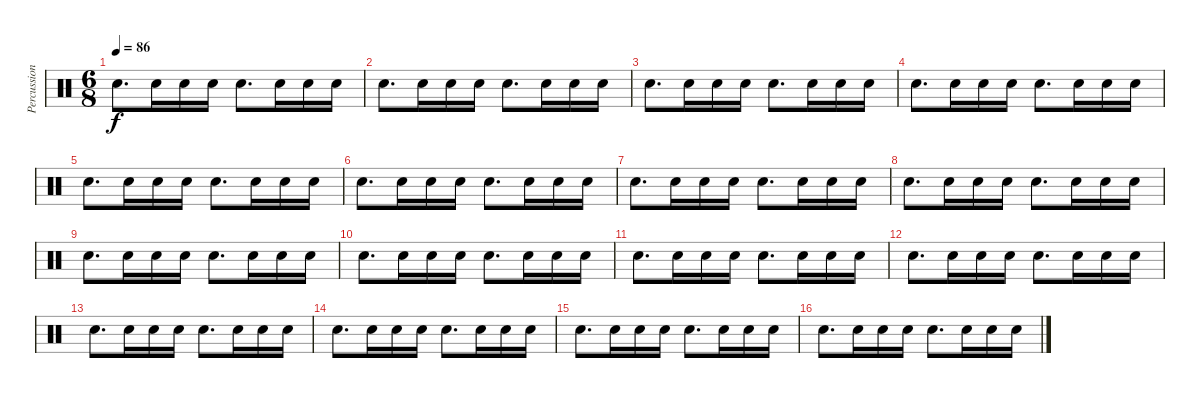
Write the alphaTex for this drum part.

\track ("Percussion" "Percussion") {instrument percussion}
\staff {score}
\articulation defaults
\ts (6 8)
\tempo 86
\clef neutral
\ks c "Hand Clap (hit)".8{d dy f} "Hand Clap (hit)".16 "Hand Clap (hit)".16 "Hand Clap (hit)".16 "Hand Clap (hit)".8{d} "Hand Clap (hit)".16 "Hand Clap (hit)".16 "Hand Clap (hit)".16
|
"Hand Clap (hit)".8{d} "Hand Clap (hit)".16 "Hand Clap (hit)".16 "Hand Clap (hit)".16 "Hand Clap (hit)".8{d} "Hand Clap (hit)".16 "Hand Clap (hit)".16 "Hand Clap (hit)".16 |
"Hand Clap (hit)".8{d} "Hand Clap (hit)".16 "Hand Clap (hit)".16 "Hand Clap (hit)".16 "Hand Clap (hit)".8{d} "Hand Clap (hit)".16 "Hand Clap (hit)".16 "Hand Clap (hit)".16 |
"Hand Clap (hit)".8{d} "Hand Clap (hit)".16 "Hand Clap (hit)".16 "Hand Clap (hit)".16 "Hand Clap (hit)".8{d} "Hand Clap (hit)".16 "Hand Clap (hit)".16 "Hand Clap (hit)".16 |
"Hand Clap (hit)".8{d} "Hand Clap (hit)".16 "Hand Clap (hit)".16 "Hand Clap (hit)".16 "Hand Clap (hit)".8{d} "Hand Clap (hit)".16 "Hand Clap (hit)".16 "Hand Clap (hit)".16 |
"Hand Clap (hit)".8{d} "Hand Clap (hit)".16 "Hand Clap (hit)".16 "Hand Clap (hit)".16 "Hand Clap (hit)".8{d} "Hand Clap (hit)".16 "Hand Clap (hit)".16 "Hand Clap (hit)".16 |
"Hand Clap (hit)".8{d} "Hand Clap (hit)".16 "Hand Clap (hit)".16 "Hand Clap (hit)".16 "Hand Clap (hit)".8{d} "Hand Clap (hit)".16 "Hand Clap (hit)".16 "Hand Clap (hit)".16 |
"Hand Clap (hit)".8{d} "Hand Clap (hit)".16 "Hand Clap (hit)".16 "Hand Clap (hit)".16 "Hand Clap (hit)".8{d} "Hand Clap (hit)".16 "Hand Clap (hit)".16 "Hand Clap (hit)".16 |
"Hand Clap (hit)".8{d} "Hand Clap (hit)".16 "Hand Clap (hit)".16 "Hand Clap (hit)".16 "Hand Clap (hit)".8{d} "Hand Clap (hit)".16 "Hand Clap (hit)".16 "Hand Clap (hit)".16 |
"Hand Clap (hit)".8{d} "Hand Clap (hit)".16 "Hand Clap (hit)".16 "Hand Clap (hit)".16 "Hand Clap (hit)".8{d} "Hand Clap (hit)".16 "Hand Clap (hit)".16 "Hand Clap (hit)".16 |
"Hand Clap (hit)".8{d} "Hand Clap (hit)".16 "Hand Clap (hit)".16 "Hand Clap (hit)".16 "Hand Clap (hit)".8{d} "Hand Clap (hit)".16 "Hand Clap (hit)".16 "Hand Clap (hit)".16 |
"Hand Clap (hit)".8{d} "Hand Clap (hit)".16 "Hand Clap (hit)".16 "Hand Clap (hit)".16 "Hand Clap (hit)".8{d} "Hand Clap (hit)".16 "Hand Clap (hit)".16 "Hand Clap (hit)".16 |
"Hand Clap (hit)".8{d} "Hand Clap (hit)".16 "Hand Clap (hit)".16 "Hand Clap (hit)".16 "Hand Clap (hit)".8{d} "Hand Clap (hit)".16 "Hand Clap (hit)".16 "Hand Clap (hit)".16 |
"Hand Clap (hit)".8{d} "Hand Clap (hit)".16 "Hand Clap (hit)".16 "Hand Clap (hit)".16 "Hand Clap (hit)".8{d} "Hand Clap (hit)".16 "Hand Clap (hit)".16 "Hand Clap (hit)".16 |
"Hand Clap (hit)".8{d} "Hand Clap (hit)".16 "Hand Clap (hit)".16 "Hand Clap (hit)".16 "Hand Clap (hit)".8{d} "Hand Clap (hit)".16 "Hand Clap (hit)".16 "Hand Clap (hit)".16 |
"Hand Clap (hit)".8{d} "Hand Clap (hit)".16 "Hand Clap (hit)".16 "Hand Clap (hit)".16 "Hand Clap (hit)".8{d} "Hand Clap (hit)".16 "Hand Clap (hit)".16 "Hand Clap (hit)".16
